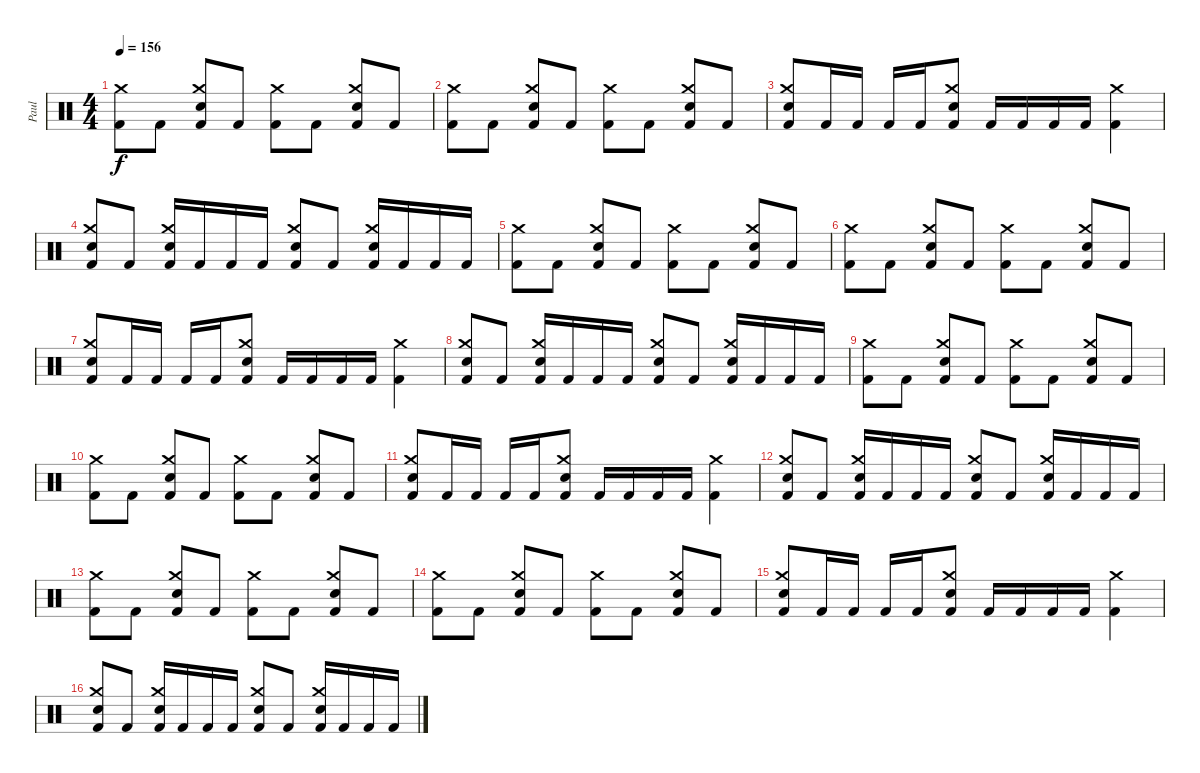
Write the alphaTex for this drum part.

\track ("Paul" "Paul") {instrument percussion}
\staff {score}
\articulation defaults
\ts (4 4)
\tempo 156
\clef neutral
\ks c
("Kick (hit) 2" "Crash medium (hit)").8{dy f} "Kick (hit) 2".8 ("Kick (hit) 2" "Snare (hit) 2" "Crash medium (hit)").8 "Kick (hit) 2".8 ("Kick (hit) 2" "Crash medium (hit)").8 "Kick (hit) 2".8 ("Kick (hit) 2" "Snare (hit) 2" "Crash medium (hit)").8 "Kick (hit) 2".8 |
("Kick (hit) 2" "Crash medium (hit)").8 "Kick (hit) 2".8 ("Kick (hit) 2" "Snare (hit) 2" "Crash medium (hit)").8 "Kick (hit) 2".8 ("Kick (hit) 2" "Crash medium (hit)").8 "Kick (hit) 2".8 ("Kick (hit) 2" "Snare (hit) 2" "Crash medium (hit)").8 "Kick (hit) 2".8 |
("Kick (hit) 2" "Snare (hit) 2" "Crash medium (hit)").8 "Kick (hit) 2".16 "Kick (hit) 2".16 "Kick (hit) 2".16 "Kick (hit) 2".16 ("Kick (hit) 2" "Snare (hit) 2" "Crash medium (hit)").8 "Kick (hit) 2".16 "Kick (hit) 2".16 "Kick (hit) 2".16 "Kick (hit) 2".16 ("Kick (hit) 2" "Crash medium (hit)").4 |
("Kick (hit) 2" "Snare (hit) 2" "Crash medium (hit)").8 "Kick (hit) 2".8 ("Kick (hit) 2" "Snare (hit) 2" "Crash medium (hit)").16 "Kick (hit) 2".16 "Kick (hit) 2".16 "Kick (hit) 2".16 ("Kick (hit) 2" "Snare (hit) 2" "Crash medium (hit)").8 "Kick (hit) 2".8 ("Kick (hit) 2" "Snare (hit) 2" "Crash medium (hit)").16 "Kick (hit) 2".16 "Kick (hit) 2".16 "Kick (hit) 2".16 |
("Kick (hit) 2" "Crash medium (hit)").8 "Kick (hit) 2".8 ("Kick (hit) 2" "Snare (hit) 2" "Crash medium (hit)").8 "Kick (hit) 2".8 ("Kick (hit) 2" "Crash medium (hit)").8 "Kick (hit) 2".8 ("Kick (hit) 2" "Snare (hit) 2" "Crash medium (hit)").8 "Kick (hit) 2".8 |
("Kick (hit) 2" "Crash medium (hit)").8 "Kick (hit) 2".8 ("Kick (hit) 2" "Snare (hit) 2" "Crash medium (hit)").8 "Kick (hit) 2".8 ("Kick (hit) 2" "Crash medium (hit)").8 "Kick (hit) 2".8 ("Kick (hit) 2" "Snare (hit) 2" "Crash medium (hit)").8 "Kick (hit) 2".8 |
("Kick (hit) 2" "Snare (hit) 2" "Crash medium (hit)").8 "Kick (hit) 2".16 "Kick (hit) 2".16 "Kick (hit) 2".16 "Kick (hit) 2".16 ("Kick (hit) 2" "Snare (hit) 2" "Crash medium (hit)").8 "Kick (hit) 2".16 "Kick (hit) 2".16 "Kick (hit) 2".16 "Kick (hit) 2".16 ("Kick (hit) 2" "Crash medium (hit)").4 |
("Kick (hit) 2" "Snare (hit) 2" "Crash medium (hit)").8 "Kick (hit) 2".8 ("Kick (hit) 2" "Snare (hit) 2" "Crash medium (hit)").16 "Kick (hit) 2".16 "Kick (hit) 2".16 "Kick (hit) 2".16 ("Kick (hit) 2" "Snare (hit) 2" "Crash medium (hit)").8 "Kick (hit) 2".8 ("Kick (hit) 2" "Snare (hit) 2" "Crash medium (hit)").16 "Kick (hit) 2".16 "Kick (hit) 2".16 "Kick (hit) 2".16 |
("Kick (hit) 2" "Crash medium (hit)").8 "Kick (hit) 2".8 ("Kick (hit) 2" "Snare (hit) 2" "Crash medium (hit)").8 "Kick (hit) 2".8 ("Kick (hit) 2" "Crash medium (hit)").8 "Kick (hit) 2".8 ("Kick (hit) 2" "Snare (hit) 2" "Crash medium (hit)").8 "Kick (hit) 2".8 |
("Kick (hit) 2" "Crash medium (hit)").8 "Kick (hit) 2".8 ("Kick (hit) 2" "Snare (hit) 2" "Crash medium (hit)").8 "Kick (hit) 2".8 ("Kick (hit) 2" "Crash medium (hit)").8 "Kick (hit) 2".8 ("Kick (hit) 2" "Snare (hit) 2" "Crash medium (hit)").8 "Kick (hit) 2".8 |
("Kick (hit) 2" "Snare (hit) 2" "Crash medium (hit)").8 "Kick (hit) 2".16 "Kick (hit) 2".16 "Kick (hit) 2".16 "Kick (hit) 2".16 ("Kick (hit) 2" "Snare (hit) 2" "Crash medium (hit)").8 "Kick (hit) 2".16 "Kick (hit) 2".16 "Kick (hit) 2".16 "Kick (hit) 2".16 ("Kick (hit) 2" "Crash medium (hit)").4 |
("Kick (hit) 2" "Snare (hit) 2" "Crash medium (hit)").8 "Kick (hit) 2".8 ("Kick (hit) 2" "Snare (hit) 2" "Crash medium (hit)").16 "Kick (hit) 2".16 "Kick (hit) 2".16 "Kick (hit) 2".16 ("Kick (hit) 2" "Snare (hit) 2" "Crash medium (hit)").8 "Kick (hit) 2".8 ("Kick (hit) 2" "Snare (hit) 2" "Crash medium (hit)").16 "Kick (hit) 2".16 "Kick (hit) 2".16 "Kick (hit) 2".16 |
("Kick (hit) 2" "Crash medium (hit)").8 "Kick (hit) 2".8 ("Kick (hit) 2" "Snare (hit) 2" "Crash medium (hit)").8 "Kick (hit) 2".8 ("Kick (hit) 2" "Crash medium (hit)").8 "Kick (hit) 2".8 ("Kick (hit) 2" "Snare (hit) 2" "Crash medium (hit)").8 "Kick (hit) 2".8 |
("Kick (hit) 2" "Crash medium (hit)").8 "Kick (hit) 2".8 ("Kick (hit) 2" "Snare (hit) 2" "Crash medium (hit)").8 "Kick (hit) 2".8 ("Kick (hit) 2" "Crash medium (hit)").8 "Kick (hit) 2".8 ("Kick (hit) 2" "Snare (hit) 2" "Crash medium (hit)").8 "Kick (hit) 2".8 |
("Kick (hit) 2" "Snare (hit) 2" "Crash medium (hit)").8 "Kick (hit) 2".16 "Kick (hit) 2".16 "Kick (hit) 2".16 "Kick (hit) 2".16 ("Kick (hit) 2" "Snare (hit) 2" "Crash medium (hit)").8 "Kick (hit) 2".16 "Kick (hit) 2".16 "Kick (hit) 2".16 "Kick (hit) 2".16 ("Kick (hit) 2" "Crash medium (hit)").4 |
("Kick (hit) 2" "Snare (hit) 2" "Crash medium (hit)").8 "Kick (hit) 2".8 ("Kick (hit) 2" "Snare (hit) 2" "Crash medium (hit)").16 "Kick (hit) 2".16 "Kick (hit) 2".16 "Kick (hit) 2".16 ("Kick (hit) 2" "Snare (hit) 2" "Crash medium (hit)").8 "Kick (hit) 2".8 ("Kick (hit) 2" "Snare (hit) 2" "Crash medium (hit)").16 "Kick (hit) 2".16 "Kick (hit) 2".16 "Kick (hit) 2".16
